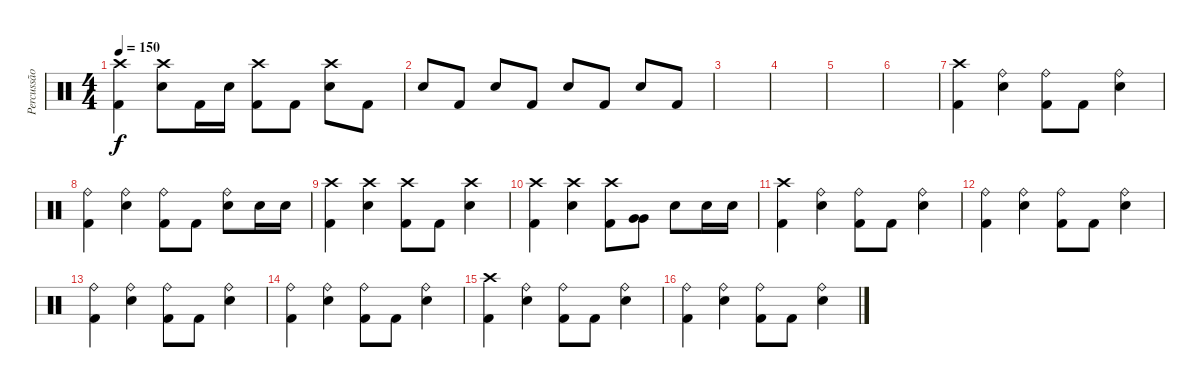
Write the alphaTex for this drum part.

\track ("Percussão" "Percussão") {instrument percussion}
\staff {score}
\articulation defaults
\ts (4 4)
\tempo 150
\clef neutral
\ks c
("Crash high (hit)" "Kick (hit) 2").4{dy f} ("Crash high (hit)" "Electric Snare (hit)").8 "Kick (hit) 2".16 "Electric Snare (hit)".16 ("Crash high (hit)" "Kick (hit) 2").8 "Kick (hit) 2".8 ("Crash high (hit)" "Electric Snare (hit)").8 "Kick (hit) 2".8 |
"Electric Snare (hit)".8 "Kick (hit) 2".8 "Electric Snare (hit)".8 "Kick (hit) 2".8 "Electric Snare (hit)".8 "Kick (hit) 2".8 "Electric Snare (hit)".8 "Kick (hit) 2".8 |
|
|
|
|
("Crash high (hit)" "Kick (hit) 2").4 ("Ride (bell)" "Electric Snare (hit)").4 ("Ride (bell)" "Kick (hit) 2").8 "Kick (hit) 2".8 ("Ride (bell)" "Electric Snare (hit)").4 |
("Ride (bell)" "Kick (hit) 2").4 ("Ride (bell)" "Electric Snare (hit)").4 ("Ride (bell)" "Kick (hit) 2").8 "Kick (hit) 2".8 ("Ride (bell)" "Electric Snare (hit)").8 "Electric Snare (hit)".16 "Electric Snare (hit)".16 |
("Crash high (hit)" "Kick (hit) 2").4 ("Crash high (hit)" "Electric Snare (hit)").4 ("Crash high (hit)" "Kick (hit) 2").8 "Kick (hit) 2".8 ("Crash high (hit)" "Electric Snare (hit)").4 |
("Crash high (hit)" "Kick (hit) 2").4 ("Crash high (hit)" "Electric Snare (hit)").4 ("Crash high (hit)" "Kick (hit) 2").8 ("Very Low Tom (hit)" "Very Low Tom (hit)").8 "Electric Snare (hit)".8 "Electric Snare (hit)".16 "Electric Snare (hit)".16 |
("Crash high (hit)" "Kick (hit) 2").4 ("Ride (bell)" "Electric Snare (hit)").4 ("Ride (bell)" "Kick (hit) 2").8 "Kick (hit) 2".8 ("Ride (bell)" "Electric Snare (hit)").4 |
("Ride (bell)" "Kick (hit) 2").4 ("Ride (bell)" "Electric Snare (hit)").4 ("Ride (bell)" "Kick (hit) 2").8 "Kick (hit) 2".8 ("Ride (bell)" "Electric Snare (hit)").4 |
("Ride (bell)" "Kick (hit) 2").4 ("Ride (bell)" "Electric Snare (hit)").4 ("Ride (bell)" "Kick (hit) 2").8 "Kick (hit) 2".8 ("Ride (bell)" "Electric Snare (hit)").4 |
("Ride (bell)" "Kick (hit) 2").4 ("Ride (bell)" "Electric Snare (hit)").4 ("Ride (bell)" "Kick (hit) 2").8 "Kick (hit) 2".8 ("Ride (bell)" "Electric Snare (hit)").4 |
("Crash high (hit)" "Kick (hit) 2").4 ("Ride (bell)" "Electric Snare (hit)").4 ("Ride (bell)" "Kick (hit) 2").8 "Kick (hit) 2".8 ("Ride (bell)" "Electric Snare (hit)").4 |
("Ride (bell)" "Kick (hit) 2").4 ("Ride (bell)" "Electric Snare (hit)").4 ("Ride (bell)" "Kick (hit) 2").8 "Kick (hit) 2".8 ("Ride (bell)" "Electric Snare (hit)").4
